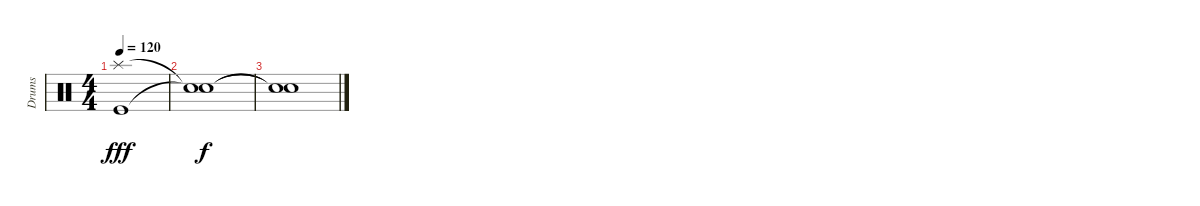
\track ("Drums" "Drums") {instrument percussion}
\staff {score}
\articulation defaults
\ts (4 4)
\tempo 120
\clef neutral
\ks c
("Splash (hit)" "Kick (hit)").1{dy fff} |
("Snare (hit)"{t} "Snare (hit)"{t}).1{dy f} |
("Snare (hit)"{t} "Snare (hit)"{t}).1
